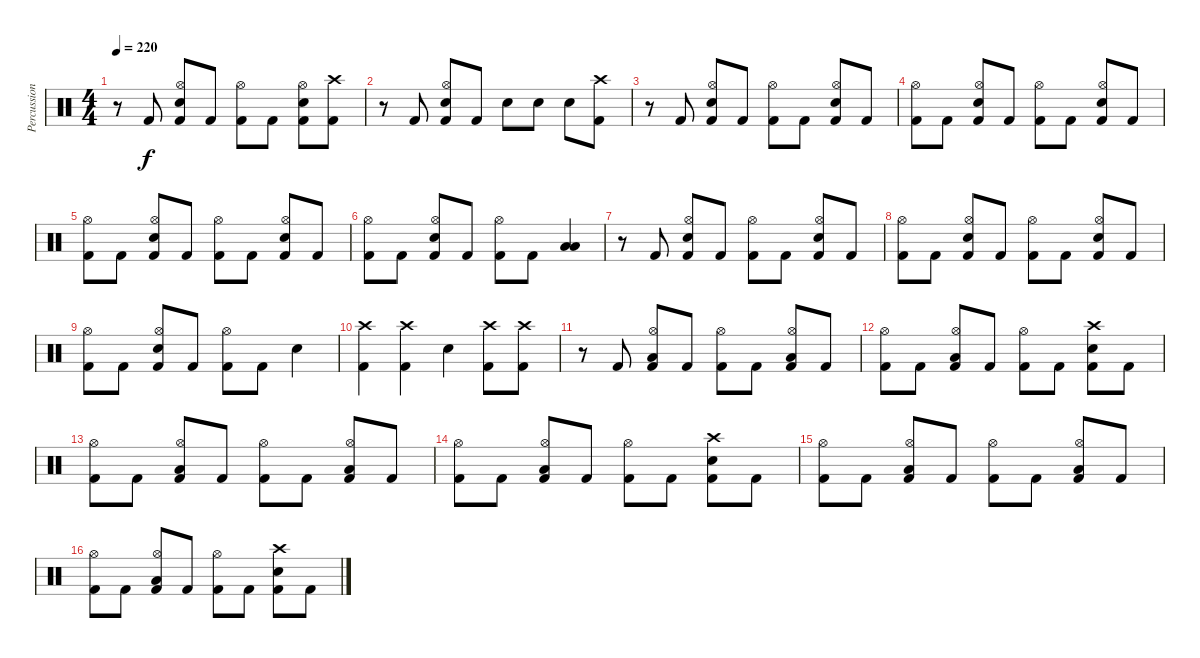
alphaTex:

\track ("Percussions" "Percussion") {instrument percussion}
\staff {score}
\articulation defaults
\ts (4 4)
\tempo 220
\clef neutral
\ks c
r.8{dy f} "Kick (hit) 2".8 ("Hi-Hat (open)" "Electric Snare (hit)" "Kick (hit) 2").8 "Kick (hit) 2".8 ("Hi-Hat (open)" "Kick (hit) 2").8 "Kick (hit) 2".8 ("Hi-Hat (open)" "Electric Snare (hit)" "Kick (hit) 2").8 ("Crash high (hit)" "Kick (hit) 2").8 |
r.8 "Kick (hit) 2".8 ("Hi-Hat (open)" "Electric Snare (hit)" "Kick (hit) 2").8 "Kick (hit) 2".8 "Electric Snare (hit)".8 "Electric Snare (hit)".8 "Electric Snare (hit)".8 ("Crash high (hit)" "Kick (hit) 2").8 |
r.8 "Kick (hit) 2".8 ("Hi-Hat (open)" "Electric Snare (hit)" "Kick (hit) 2").8 "Kick (hit) 2".8 ("Hi-Hat (open)" "Kick (hit) 2").8 "Kick (hit) 2".8 ("Hi-Hat (open)" "Electric Snare (hit)" "Kick (hit) 2").8 "Kick (hit) 2".8 |
("Hi-Hat (open)" "Kick (hit) 2").8 "Kick (hit) 2".8 ("Hi-Hat (open)" "Electric Snare (hit)" "Kick (hit) 2").8 "Kick (hit) 2".8 ("Hi-Hat (open)" "Kick (hit) 2").8 "Kick (hit) 2".8 ("Hi-Hat (open)" "Electric Snare (hit)" "Kick (hit) 2").8 "Kick (hit) 2".8 |
("Hi-Hat (open)" "Kick (hit) 2").8 "Kick (hit) 2".8 ("Hi-Hat (open)" "Electric Snare (hit)" "Kick (hit) 2").8 "Kick (hit) 2".8 ("Hi-Hat (open)" "Kick (hit) 2").8 "Kick (hit) 2".8 ("Hi-Hat (open)" "Electric Snare (hit)" "Kick (hit) 2").8 "Kick (hit) 2".8 |
("Hi-Hat (open)" "Kick (hit) 2").8 "Kick (hit) 2".8 ("Hi-Hat (open)" "Electric Snare (hit)" "Kick (hit) 2").8 "Kick (hit) 2".8 ("Hi-Hat (open)" "Kick (hit) 2").8 "Kick (hit) 2".8 ("Low Tom (hit)" "Low Floor Tom (hit)").4 |
r.8 "Kick (hit) 2".8 ("Hi-Hat (open)" "Electric Snare (hit)" "Kick (hit) 2").8 "Kick (hit) 2".8 ("Hi-Hat (open)" "Kick (hit) 2").8 "Kick (hit) 2".8 ("Hi-Hat (open)" "Electric Snare (hit)" "Kick (hit) 2").8 "Kick (hit) 2".8 |
("Hi-Hat (open)" "Kick (hit) 2").8 "Kick (hit) 2".8 ("Hi-Hat (open)" "Electric Snare (hit)" "Kick (hit) 2").8 "Kick (hit) 2".8 ("Hi-Hat (open)" "Kick (hit) 2").8 "Kick (hit) 2".8 ("Hi-Hat (open)" "Electric Snare (hit)" "Kick (hit) 2").8 "Kick (hit) 2".8 |
("Hi-Hat (open)" "Kick (hit) 2").8 "Kick (hit) 2".8 ("Hi-Hat (open)" "Electric Snare (hit)" "Kick (hit) 2").8 "Kick (hit) 2".8 ("Hi-Hat (open)" "Kick (hit) 2").8 "Kick (hit) 2".8 "Electric Snare (hit)".4 |
("Crash high (hit)" "Kick (hit) 2").4 ("Crash high (hit)" "Kick (hit) 2").4 "Electric Snare (hit)".4 ("Crash high (hit)" "Kick (hit) 2").8 ("Crash high (hit)" "Kick (hit) 2").8 |
r.8 "Kick (hit) 2".8 ("Hi-Hat (open)" "Low Tom (hit)" "Kick (hit) 2").8 "Kick (hit) 2".8 ("Hi-Hat (open)" "Kick (hit) 2").8 "Kick (hit) 2".8 ("Hi-Hat (open)" "Low Tom (hit)" "Kick (hit) 2").8 "Kick (hit) 2".8 |
("Hi-Hat (open)" "Kick (hit) 2").8 "Kick (hit) 2".8 ("Hi-Hat (open)" "Low Tom (hit)" "Kick (hit) 2").8 "Kick (hit) 2".8 ("Hi-Hat (open)" "Kick (hit) 2").8 "Kick (hit) 2".8 ("Crash high (hit)" "Electric Snare (hit)" "Kick (hit) 2").8 "Kick (hit) 2".8 |
("Hi-Hat (open)" "Kick (hit) 2").8 "Kick (hit) 2".8 ("Hi-Hat (open)" "Low Tom (hit)" "Kick (hit) 2").8 "Kick (hit) 2".8 ("Hi-Hat (open)" "Kick (hit) 2").8 "Kick (hit) 2".8 ("Hi-Hat (open)" "Low Tom (hit)" "Kick (hit) 2").8 "Kick (hit) 2".8 |
("Hi-Hat (open)" "Kick (hit) 2").8 "Kick (hit) 2".8 ("Hi-Hat (open)" "Low Tom (hit)" "Kick (hit) 2").8 "Kick (hit) 2".8 ("Hi-Hat (open)" "Kick (hit) 2").8 "Kick (hit) 2".8 ("Crash high (hit)" "Electric Snare (hit)" "Kick (hit) 2").8 "Kick (hit) 2".8 |
("Hi-Hat (open)" "Kick (hit) 2").8 "Kick (hit) 2".8 ("Hi-Hat (open)" "Low Tom (hit)" "Kick (hit) 2").8 "Kick (hit) 2".8 ("Hi-Hat (open)" "Kick (hit) 2").8 "Kick (hit) 2".8 ("Hi-Hat (open)" "Low Tom (hit)" "Kick (hit) 2").8 "Kick (hit) 2".8 |
("Hi-Hat (open)" "Kick (hit) 2").8 "Kick (hit) 2".8 ("Hi-Hat (open)" "Low Tom (hit)" "Kick (hit) 2").8 "Kick (hit) 2".8 ("Hi-Hat (open)" "Kick (hit) 2").8 "Kick (hit) 2".8 ("Crash high (hit)" "Electric Snare (hit)" "Kick (hit) 2").8 "Kick (hit) 2".8
